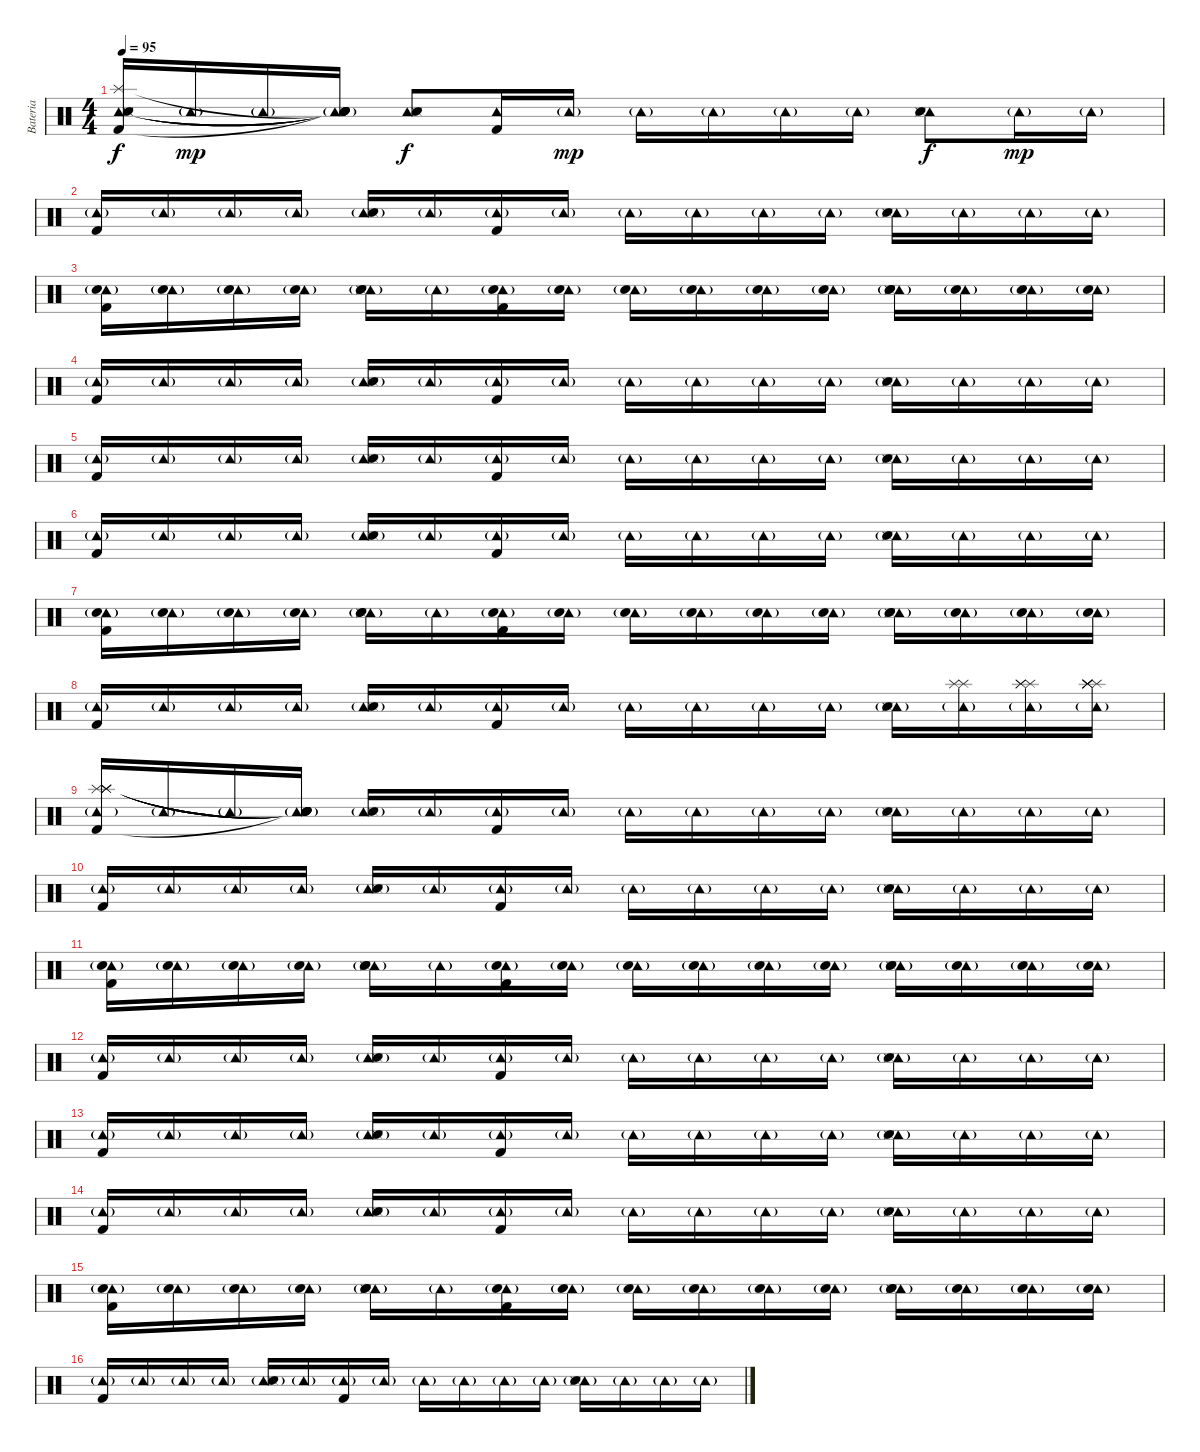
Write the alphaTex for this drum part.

\track ("Bateria" "Bateria") {instrument percussion}
\staff {score}
\articulation defaults
\ts (4 4)
\tempo 95
\clef neutral
\ks c
("Tambourine (hit)" "Snare (side stick) 3" "Snare (side stick) 3" "Snare (hit) 2" "Splash (hit)" "Kick (hit) 2").16{dy f} "Tambourine (hit)"{g}.16{dy mp} "Tambourine (hit)"{g}.16 ("Tambourine (hit)"{g} "Snare (hit)"{t} "Snare (hit)"{t} "Snare (hit)"{t} "Snare (hit)"{t} "Snare (hit)"{t}).16 ("Tambourine (hit)" "Snare (side stick) 3" "Snare (hit) 2").8{dy f} ("Tambourine (hit)" "Kick (hit) 2").16 "Tambourine (hit)"{g}.16{dy mp} "Tambourine (hit)"{g}.16 "Tambourine (hit)"{g}.16 "Tambourine (hit)"{g}.16 "Tambourine (hit)"{g}.16 ("Tambourine (hit)" "Snare (side stick) 3" "Snare (hit) 2").8{dy f} "Tambourine (hit)"{g}.16{dy mp} "Tambourine (hit)"{g}.16 |
("Tambourine (hit)"{g} "Kick (hit) 2").16 "Tambourine (hit)"{g}.16 "Tambourine (hit)"{g}.16 "Tambourine (hit)"{g}.16 ("Tambourine (hit)"{g} "Snare (side stick) 3" "Snare (hit) 2").16 "Tambourine (hit)"{g}.16 ("Tambourine (hit)"{g} "Kick (hit) 2").16 "Tambourine (hit)"{g}.16 "Tambourine (hit)"{g}.16 "Tambourine (hit)"{g}.16 "Tambourine (hit)"{g}.16 "Tambourine (hit)"{g}.16 ("Tambourine (hit)"{g} "Snare (side stick) 3" "Snare (hit) 2").16 "Tambourine (hit)"{g}.16 "Tambourine (hit)"{g}.16 "Tambourine (hit)"{g}.16 |
("Tambourine (hit)"{g} "Hand Clap (hit)" "Kick (hit) 2").16 ("Tambourine (hit)"{g} "Hand Clap (hit)").16 ("Tambourine (hit)"{g} "Hand Clap (hit)").16 ("Tambourine (hit)"{g} "Hand Clap (hit)").16 ("Tambourine (hit)"{g} "Hand Clap (hit)" "Snare (side stick) 3" "Snare (hit) 2").16 "Tambourine (hit)"{g}.16 ("Tambourine (hit)"{g} "Hand Clap (hit)" "Kick (hit) 2").16 ("Tambourine (hit)"{g} "Hand Clap (hit)").16 ("Tambourine (hit)"{g} "Hand Clap (hit)").16 ("Tambourine (hit)"{g} "Hand Clap (hit)").16 ("Tambourine (hit)"{g} "Hand Clap (hit)").16 ("Tambourine (hit)"{g} "Hand Clap (hit)").16 ("Tambourine (hit)"{g} "Hand Clap (hit)" "Snare (side stick) 3" "Snare (hit) 2").16 ("Tambourine (hit)"{g} "Hand Clap (hit)").16 ("Tambourine (hit)"{g} "Hand Clap (hit)").16 ("Tambourine (hit)"{g} "Hand Clap (hit)").16 |
("Tambourine (hit)"{g} "Kick (hit) 2").16 "Tambourine (hit)"{g}.16 "Tambourine (hit)"{g}.16 "Tambourine (hit)"{g}.16 ("Tambourine (hit)"{g} "Snare (side stick) 3" "Snare (hit) 2").16 "Tambourine (hit)"{g}.16 ("Tambourine (hit)"{g} "Kick (hit) 2").16 "Tambourine (hit)"{g}.16 "Tambourine (hit)"{g}.16 "Tambourine (hit)"{g}.16 "Tambourine (hit)"{g}.16 "Tambourine (hit)"{g}.16 ("Tambourine (hit)"{g} "Snare (side stick) 3" "Snare (hit) 2").16 "Tambourine (hit)"{g}.16 "Tambourine (hit)"{g}.16 "Tambourine (hit)"{g}.16 |
("Tambourine (hit)"{g} "Kick (hit) 2").16 "Tambourine (hit)"{g}.16 "Tambourine (hit)"{g}.16 "Tambourine (hit)"{g}.16 ("Tambourine (hit)"{g} "Snare (side stick) 3" "Snare (hit) 2").16 "Tambourine (hit)"{g}.16 ("Tambourine (hit)"{g} "Kick (hit) 2").16 "Tambourine (hit)"{g}.16 "Tambourine (hit)"{g}.16 "Tambourine (hit)"{g}.16 "Tambourine (hit)"{g}.16 "Tambourine (hit)"{g}.16 ("Tambourine (hit)"{g} "Snare (side stick) 3" "Snare (hit) 2").16 "Tambourine (hit)"{g}.16 "Tambourine (hit)"{g}.16 "Tambourine (hit)"{g}.16 |
("Tambourine (hit)"{g} "Kick (hit) 2").16 "Tambourine (hit)"{g}.16 "Tambourine (hit)"{g}.16 "Tambourine (hit)"{g}.16 ("Tambourine (hit)"{g} "Snare (side stick) 3" "Snare (hit) 2").16 "Tambourine (hit)"{g}.16 ("Tambourine (hit)"{g} "Kick (hit) 2").16 "Tambourine (hit)"{g}.16 "Tambourine (hit)"{g}.16 "Tambourine (hit)"{g}.16 "Tambourine (hit)"{g}.16 "Tambourine (hit)"{g}.16 ("Tambourine (hit)"{g} "Snare (side stick) 3" "Snare (hit) 2").16 "Tambourine (hit)"{g}.16 "Tambourine (hit)"{g}.16 "Tambourine (hit)"{g}.16 |
("Tambourine (hit)"{g} "Hand Clap (hit)" "Kick (hit) 2").16 ("Tambourine (hit)"{g} "Hand Clap (hit)").16 ("Tambourine (hit)"{g} "Hand Clap (hit)").16 ("Tambourine (hit)"{g} "Hand Clap (hit)").16 ("Tambourine (hit)"{g} "Hand Clap (hit)" "Snare (side stick) 3" "Snare (hit) 2").16 "Tambourine (hit)"{g}.16 ("Tambourine (hit)"{g} "Hand Clap (hit)" "Kick (hit) 2").16 ("Tambourine (hit)"{g} "Hand Clap (hit)").16 ("Tambourine (hit)"{g} "Hand Clap (hit)").16 ("Tambourine (hit)"{g} "Hand Clap (hit)").16 ("Tambourine (hit)"{g} "Hand Clap (hit)").16 ("Tambourine (hit)"{g} "Hand Clap (hit)").16 ("Tambourine (hit)"{g} "Hand Clap (hit)" "Snare (side stick) 3" "Snare (hit) 2").16 ("Tambourine (hit)"{g} "Hand Clap (hit)").16 ("Tambourine (hit)"{g} "Hand Clap (hit)").16 ("Tambourine (hit)"{g} "Hand Clap (hit)").16 |
("Tambourine (hit)"{g} "Kick (hit) 2").16 "Tambourine (hit)"{g}.16 "Tambourine (hit)"{g}.16 "Tambourine (hit)"{g}.16 ("Tambourine (hit)"{g} "Snare (side stick) 3" "Snare (hit) 2").16 "Tambourine (hit)"{g}.16 ("Tambourine (hit)"{g} "Kick (hit) 2").16 "Tambourine (hit)"{g}.16 "Tambourine (hit)"{g}.16 "Tambourine (hit)"{g}.16 "Tambourine (hit)"{g}.16 "Tambourine (hit)"{g}.16 ("Tambourine (hit)"{g} "Snare (side stick) 3" "Snare (hit) 2").16 ("Tambourine (hit)"{g} "Splash (hit)" "Splash (hit)").16 ("Tambourine (hit)"{g} "Splash (hit)" "Splash (hit)" "Splash (hit)").16 ("Tambourine (hit)"{g} "Splash (hit)" "Splash (hit)" "Splash (hit)" "Splash (hit)" "Splash (hit)").16 |
("Tambourine (hit)"{g} "Splash (hit)" "Splash (hit)" "Splash (hit)" "Splash (hit)" "Kick (hit) 2").16 "Tambourine (hit)"{g}.16 "Tambourine (hit)"{g}.16 ("Tambourine (hit)"{g} "Snare (hit)"{t} "Snare (hit)"{t} "Snare (hit)"{t} "Snare (hit)"{t} "Snare (hit)"{t}).16 ("Tambourine (hit)"{g} "Snare (side stick) 3" "Snare (hit) 2").16 "Tambourine (hit)"{g}.16 ("Tambourine (hit)"{g} "Kick (hit) 2").16 "Tambourine (hit)"{g}.16 "Tambourine (hit)"{g}.16 "Tambourine (hit)"{g}.16 "Tambourine (hit)"{g}.16 "Tambourine (hit)"{g}.16 ("Tambourine (hit)"{g} "Snare (side stick) 3" "Snare (hit) 2").16 "Tambourine (hit)"{g}.16 "Tambourine (hit)"{g}.16 "Tambourine (hit)"{g}.16 |
("Tambourine (hit)"{g} "Kick (hit) 2").16 "Tambourine (hit)"{g}.16 "Tambourine (hit)"{g}.16 "Tambourine (hit)"{g}.16 ("Tambourine (hit)"{g} "Snare (side stick) 3" "Snare (hit) 2").16 "Tambourine (hit)"{g}.16 ("Tambourine (hit)"{g} "Kick (hit) 2").16 "Tambourine (hit)"{g}.16 "Tambourine (hit)"{g}.16 "Tambourine (hit)"{g}.16 "Tambourine (hit)"{g}.16 "Tambourine (hit)"{g}.16 ("Tambourine (hit)"{g} "Snare (side stick) 3" "Snare (hit) 2").16 "Tambourine (hit)"{g}.16 "Tambourine (hit)"{g}.16 "Tambourine (hit)"{g}.16 |
("Tambourine (hit)"{g} "Hand Clap (hit)" "Kick (hit) 2").16 ("Tambourine (hit)"{g} "Hand Clap (hit)").16 ("Tambourine (hit)"{g} "Hand Clap (hit)").16 ("Tambourine (hit)"{g} "Hand Clap (hit)").16 ("Tambourine (hit)"{g} "Hand Clap (hit)" "Snare (side stick) 3" "Snare (hit) 2").16 "Tambourine (hit)"{g}.16 ("Tambourine (hit)"{g} "Hand Clap (hit)" "Kick (hit) 2").16 ("Tambourine (hit)"{g} "Hand Clap (hit)").16 ("Tambourine (hit)"{g} "Hand Clap (hit)").16 ("Tambourine (hit)"{g} "Hand Clap (hit)").16 ("Tambourine (hit)"{g} "Hand Clap (hit)").16 ("Tambourine (hit)"{g} "Hand Clap (hit)").16 ("Tambourine (hit)"{g} "Hand Clap (hit)" "Snare (side stick) 3" "Snare (hit) 2").16 ("Tambourine (hit)"{g} "Hand Clap (hit)").16 ("Tambourine (hit)"{g} "Hand Clap (hit)").16 ("Tambourine (hit)"{g} "Hand Clap (hit)").16 |
("Tambourine (hit)"{g} "Kick (hit) 2").16 "Tambourine (hit)"{g}.16 "Tambourine (hit)"{g}.16 "Tambourine (hit)"{g}.16 ("Tambourine (hit)"{g} "Snare (side stick) 3" "Snare (hit) 2").16 "Tambourine (hit)"{g}.16 ("Tambourine (hit)"{g} "Kick (hit) 2").16 "Tambourine (hit)"{g}.16 "Tambourine (hit)"{g}.16 "Tambourine (hit)"{g}.16 "Tambourine (hit)"{g}.16 "Tambourine (hit)"{g}.16 ("Tambourine (hit)"{g} "Snare (side stick) 3" "Snare (hit) 2").16 "Tambourine (hit)"{g}.16 "Tambourine (hit)"{g}.16 "Tambourine (hit)"{g}.16 |
("Tambourine (hit)"{g} "Kick (hit) 2").16 "Tambourine (hit)"{g}.16 "Tambourine (hit)"{g}.16 "Tambourine (hit)"{g}.16 ("Tambourine (hit)"{g} "Snare (side stick) 3" "Snare (hit) 2").16 "Tambourine (hit)"{g}.16 ("Tambourine (hit)"{g} "Kick (hit) 2").16 "Tambourine (hit)"{g}.16 "Tambourine (hit)"{g}.16 "Tambourine (hit)"{g}.16 "Tambourine (hit)"{g}.16 "Tambourine (hit)"{g}.16 ("Tambourine (hit)"{g} "Snare (side stick) 3" "Snare (hit) 2").16 "Tambourine (hit)"{g}.16 "Tambourine (hit)"{g}.16 "Tambourine (hit)"{g}.16 |
("Tambourine (hit)"{g} "Kick (hit) 2").16 "Tambourine (hit)"{g}.16 "Tambourine (hit)"{g}.16 "Tambourine (hit)"{g}.16 ("Tambourine (hit)"{g} "Snare (side stick) 3" "Snare (hit) 2").16 "Tambourine (hit)"{g}.16 ("Tambourine (hit)"{g} "Kick (hit) 2").16 "Tambourine (hit)"{g}.16 "Tambourine (hit)"{g}.16 "Tambourine (hit)"{g}.16 "Tambourine (hit)"{g}.16 "Tambourine (hit)"{g}.16 ("Tambourine (hit)"{g} "Snare (side stick) 3" "Snare (hit) 2").16 "Tambourine (hit)"{g}.16 "Tambourine (hit)"{g}.16 "Tambourine (hit)"{g}.16 |
("Tambourine (hit)"{g} "Hand Clap (hit)" "Kick (hit) 2").16 ("Tambourine (hit)"{g} "Hand Clap (hit)").16 ("Tambourine (hit)"{g} "Hand Clap (hit)").16 ("Tambourine (hit)"{g} "Hand Clap (hit)").16 ("Tambourine (hit)"{g} "Hand Clap (hit)" "Snare (side stick) 3" "Snare (hit) 2").16 "Tambourine (hit)"{g}.16 ("Tambourine (hit)"{g} "Hand Clap (hit)" "Kick (hit) 2").16 ("Tambourine (hit)"{g} "Hand Clap (hit)").16 ("Tambourine (hit)"{g} "Hand Clap (hit)").16 ("Tambourine (hit)"{g} "Hand Clap (hit)").16 ("Tambourine (hit)"{g} "Hand Clap (hit)").16 ("Tambourine (hit)"{g} "Hand Clap (hit)").16 ("Tambourine (hit)"{g} "Hand Clap (hit)" "Snare (side stick) 3" "Snare (hit) 2").16 ("Tambourine (hit)"{g} "Hand Clap (hit)").16 ("Tambourine (hit)"{g} "Hand Clap (hit)").16 ("Tambourine (hit)"{g} "Hand Clap (hit)").16 |
("Tambourine (hit)"{g} "Kick (hit) 2").16 "Tambourine (hit)"{g}.16 "Tambourine (hit)"{g}.16 "Tambourine (hit)"{g}.16 ("Tambourine (hit)"{g} "Snare (side stick) 3" "Snare (hit) 2").16 "Tambourine (hit)"{g}.16 ("Tambourine (hit)"{g} "Kick (hit) 2").16 "Tambourine (hit)"{g}.16 "Tambourine (hit)"{g}.16 "Tambourine (hit)"{g}.16 "Tambourine (hit)"{g}.16 "Tambourine (hit)"{g}.16 ("Tambourine (hit)"{g} "Snare (side stick) 3" "Snare (hit) 2").16 "Tambourine (hit)"{g}.16 "Tambourine (hit)"{g}.16 "Tambourine (hit)"{g}.16
